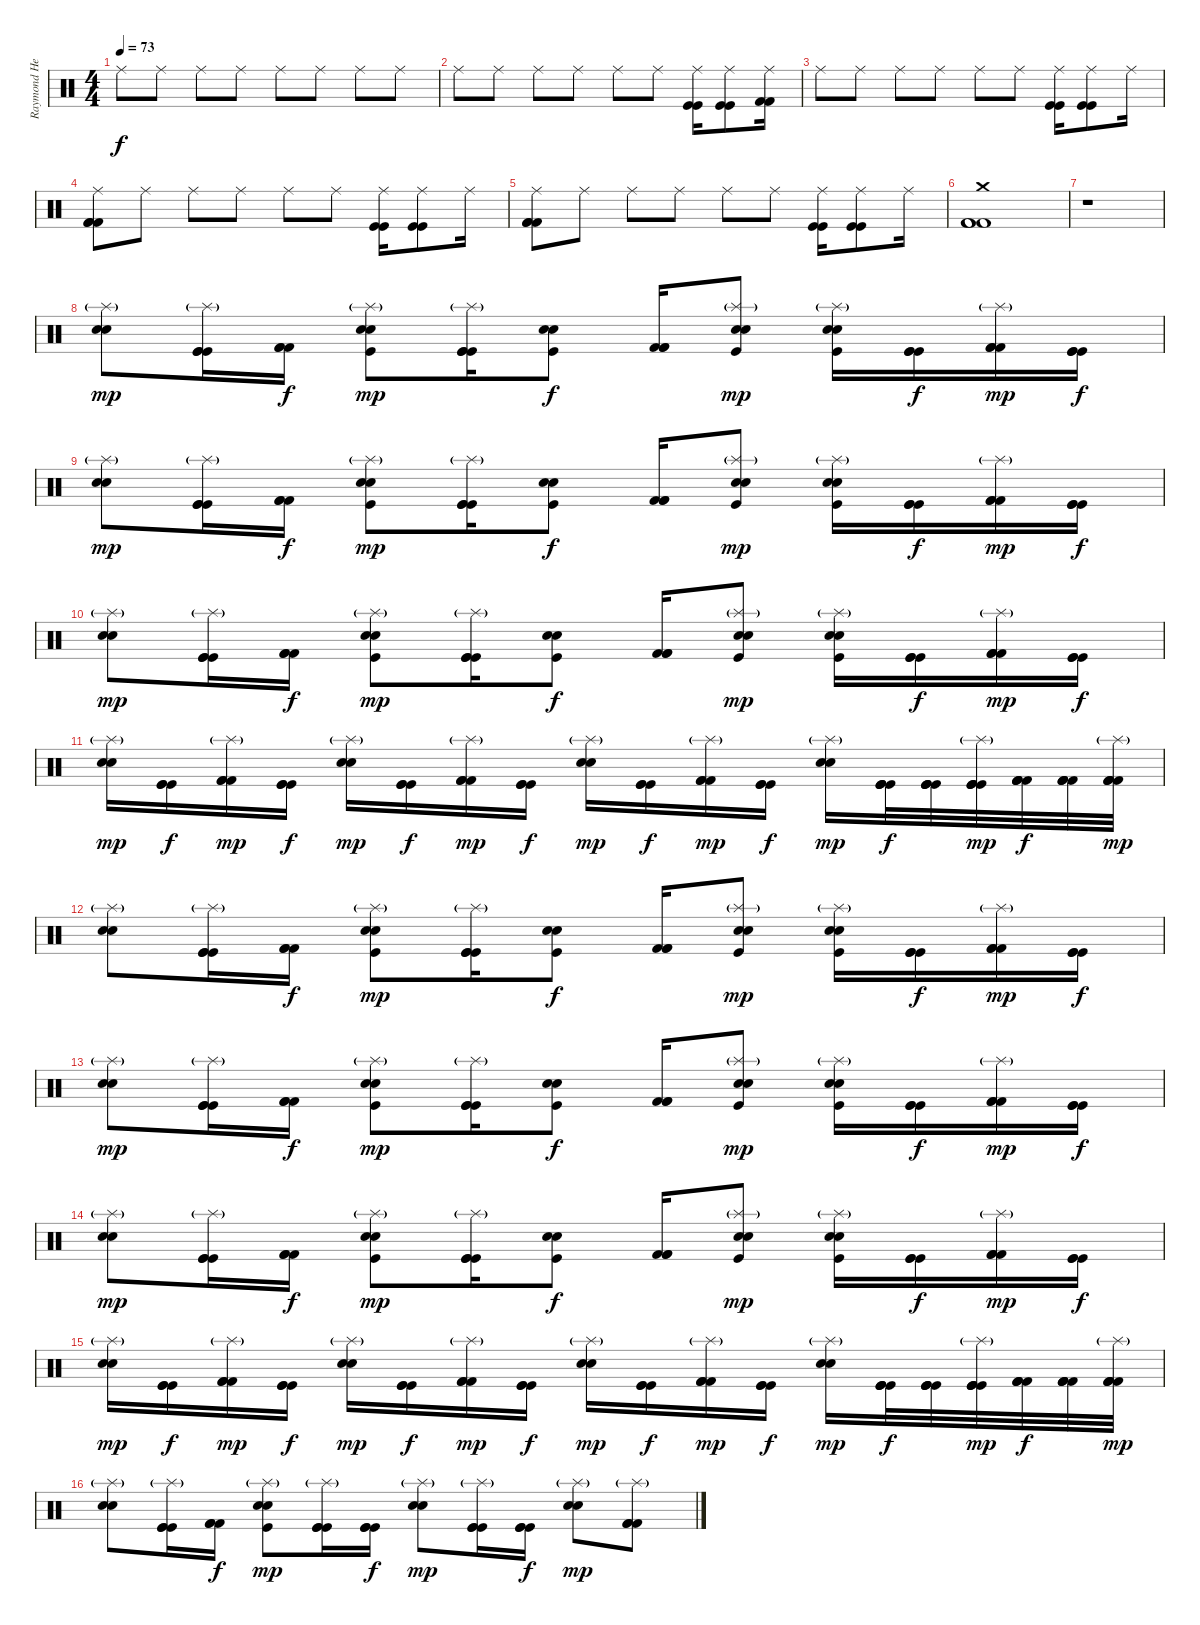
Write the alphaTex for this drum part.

\track ("Raymond Herrera" "Raymond He") {instrument percussion}
\staff {score}
\articulation defaults
\ts (4 4)
\tempo 73
\clef neutral
\ks c "Ride (middle)".8{dy f} "Ride (middle)".8 "Ride (middle)".8 "Ride (middle)".8 "Ride (middle)".8 "Ride (middle)".8 "Ride (middle)".8 "Ride (middle)".8
|
"Ride (middle)".8 "Ride (middle)".8 "Ride (middle)".8 "Ride (middle)".8 "Ride (middle)".8 "Ride (middle)".8 ("Ride (middle)" "Kick (hit)" "Kick (hit)").16 ("Ride (middle)" "Kick (hit)" "Kick (hit)").8 ("Ride (middle)" "Kick (hit) 2" "Kick (hit) 2").16 |
"Ride (middle)".8 "Ride (middle)".8 "Ride (middle)".8 "Ride (middle)".8 "Ride (middle)".8 "Ride (middle)".8 ("Ride (middle)" "Kick (hit)" "Kick (hit)").16 ("Ride (middle)" "Kick (hit)" "Kick (hit)").8 "Ride (middle)".16 |
("Ride (middle)" "Kick (hit) 2" "Kick (hit) 2" "Kick (hit) 2").8 "Ride (middle)".8 "Ride (middle)".8 "Ride (middle)".8 "Ride (middle)".8 "Ride (middle)".8 ("Ride (middle)" "Kick (hit)" "Kick (hit)").16 ("Ride (middle)" "Kick (hit)" "Kick (hit)").8 "Ride (middle)".16 |
("Ride (middle)" "Kick (hit) 2" "Kick (hit) 2" "Kick (hit) 2").8 "Ride (middle)".8 "Ride (middle)".8 "Ride (middle)".8 "Ride (middle)".8 "Ride (middle)".8 ("Ride (middle)" "Kick (hit)" "Kick (hit)").16 ("Ride (middle)" "Kick (hit)" "Kick (hit)").8 "Ride (middle)".16 |
("Crash medium (hit)" "Kick (hit) 2" "Kick (hit) 2" "Kick (hit) 2").1 |
r.1 |
("Splash (hit)"{g} "Electric Snare (hit)" "Electric Snare (hit)").8{dy mp} ("Splash (hit)"{g} "Kick (hit)" "Kick (hit)" "Kick (hit)").16 ("Kick (hit) 2" "Kick (hit) 2" "Kick (hit) 2").16{dy f} ("Splash (hit)"{g} "Electric Snare (hit)" "Electric Snare (hit)" "Kick (hit)").8{dy mp} ("Splash (hit)"{g} "Kick (hit)" "Kick (hit)" "Kick (hit)").16 ("Electric Snare (hit)" "Electric Snare (hit)" "Kick (hit)").8{dy f} ("Kick (hit) 2" "Kick (hit) 2" "Kick (hit) 2").16 ("Splash (hit)"{g} "Electric Snare (hit)" "Electric Snare (hit)" "Kick (hit)").8{dy mp} ("Splash (hit)"{g} "Electric Snare (hit)" "Electric Snare (hit)" "Kick (hit)").16 ("Kick (hit)" "Kick (hit)" "Kick (hit)").16{dy f} ("Splash (hit)"{g} "Kick (hit) 2" "Kick (hit) 2" "Kick (hit) 2").16{dy mp} ("Kick (hit)" "Kick (hit)" "Kick (hit)").16{dy f} |
("Splash (hit)"{g} "Electric Snare (hit)" "Electric Snare (hit)").8{dy mp} ("Splash (hit)"{g} "Kick (hit)" "Kick (hit)" "Kick (hit)").16 ("Kick (hit) 2" "Kick (hit) 2" "Kick (hit) 2").16{dy f} ("Splash (hit)"{g} "Electric Snare (hit)" "Electric Snare (hit)" "Kick (hit)").8{dy mp} ("Splash (hit)"{g} "Kick (hit)" "Kick (hit)" "Kick (hit)").16 ("Electric Snare (hit)" "Electric Snare (hit)" "Kick (hit)").8{dy f} ("Kick (hit) 2" "Kick (hit) 2" "Kick (hit) 2").16 ("Splash (hit)"{g} "Electric Snare (hit)" "Electric Snare (hit)" "Kick (hit)").8{dy mp} ("Splash (hit)"{g} "Electric Snare (hit)" "Electric Snare (hit)" "Kick (hit)").16 ("Kick (hit)" "Kick (hit)" "Kick (hit)").16{dy f} ("Splash (hit)"{g} "Kick (hit) 2" "Kick (hit) 2" "Kick (hit) 2").16{dy mp} ("Kick (hit)" "Kick (hit)" "Kick (hit)").16{dy f} |
("Splash (hit)"{g} "Electric Snare (hit)" "Electric Snare (hit)").8{dy mp} ("Splash (hit)"{g} "Kick (hit)" "Kick (hit)" "Kick (hit)").16 ("Kick (hit) 2" "Kick (hit) 2" "Kick (hit) 2").16{dy f} ("Splash (hit)"{g} "Electric Snare (hit)" "Electric Snare (hit)" "Kick (hit)").8{dy mp} ("Splash (hit)"{g} "Kick (hit)" "Kick (hit)" "Kick (hit)").16 ("Electric Snare (hit)" "Electric Snare (hit)" "Kick (hit)").8{dy f} ("Kick (hit) 2" "Kick (hit) 2" "Kick (hit) 2").16 ("Splash (hit)"{g} "Electric Snare (hit)" "Electric Snare (hit)" "Kick (hit)").8{dy mp} ("Splash (hit)"{g} "Electric Snare (hit)" "Electric Snare (hit)" "Kick (hit)").16 ("Kick (hit)" "Kick (hit)" "Kick (hit)").16{dy f} ("Splash (hit)"{g} "Kick (hit) 2" "Kick (hit) 2" "Kick (hit) 2").16{dy mp} ("Kick (hit)" "Kick (hit)" "Kick (hit)").16{dy f} |
("Splash (hit)"{g} "Electric Snare (hit)" "Electric Snare (hit)").16{dy mp} ("Kick (hit)" "Kick (hit)" "Kick (hit)").16{dy f} ("Splash (hit)"{g} "Kick (hit) 2" "Kick (hit) 2" "Kick (hit) 2").16{dy mp} ("Kick (hit)" "Kick (hit)" "Kick (hit)").16{dy f} ("Splash (hit)"{g} "Electric Snare (hit)" "Electric Snare (hit)").16{dy mp} ("Kick (hit)" "Kick (hit)" "Kick (hit)").16{dy f} ("Splash (hit)"{g} "Kick (hit) 2" "Kick (hit) 2" "Kick (hit) 2").16{dy mp} ("Kick (hit)" "Kick (hit)" "Kick (hit)").16{dy f} ("Splash (hit)"{g} "Electric Snare (hit)" "Electric Snare (hit)").16{dy mp} ("Kick (hit)" "Kick (hit)" "Kick (hit)").16{dy f} ("Splash (hit)"{g} "Kick (hit) 2" "Kick (hit) 2" "Kick (hit) 2").16{dy mp} ("Kick (hit)" "Kick (hit)" "Kick (hit)").16{dy f} ("Splash (hit)"{g} "Electric Snare (hit)" "Electric Snare (hit)").16{dy mp} ("Kick (hit)" "Kick (hit)" "Kick (hit)" "Kick (hit)").32{dy f} ("Kick (hit)" "Kick (hit)" "Kick (hit)" "Kick (hit)").32 ("Splash (hit)"{g} "Kick (hit)" "Kick (hit)" "Kick (hit)" "Kick (hit)").32{dy mp} ("Kick (hit) 2" "Kick (hit) 2" "Kick (hit) 2" "Kick (hit) 2").32{dy f} ("Kick (hit) 2" "Kick (hit) 2" "Kick (hit) 2" "Kick (hit) 2").32 ("Splash (hit)"{g} "Kick (hit) 2" "Kick (hit) 2" "Kick (hit) 2" "Kick (hit) 2").32{dy mp} |
("Splash (hit)"{g} "Electric Snare (hit)" "Electric Snare (hit)").8 ("Splash (hit)"{g} "Kick (hit)" "Kick (hit)" "Kick (hit)").16 ("Kick (hit) 2" "Kick (hit) 2" "Kick (hit) 2").16{dy f} ("Splash (hit)"{g} "Electric Snare (hit)" "Electric Snare (hit)" "Kick (hit)").8{dy mp} ("Splash (hit)"{g} "Kick (hit)" "Kick (hit)" "Kick (hit)").16 ("Electric Snare (hit)" "Electric Snare (hit)" "Kick (hit)").8{dy f} ("Kick (hit) 2" "Kick (hit) 2" "Kick (hit) 2").16 ("Splash (hit)"{g} "Electric Snare (hit)" "Electric Snare (hit)" "Kick (hit)").8{dy mp} ("Splash (hit)"{g} "Electric Snare (hit)" "Electric Snare (hit)" "Kick (hit)").16 ("Kick (hit)" "Kick (hit)" "Kick (hit)").16{dy f} ("Splash (hit)"{g} "Kick (hit) 2" "Kick (hit) 2" "Kick (hit) 2").16{dy mp} ("Kick (hit)" "Kick (hit)" "Kick (hit)").16{dy f} |
("Splash (hit)"{g} "Electric Snare (hit)" "Electric Snare (hit)").8{dy mp} ("Splash (hit)"{g} "Kick (hit)" "Kick (hit)" "Kick (hit)").16 ("Kick (hit) 2" "Kick (hit) 2" "Kick (hit) 2").16{dy f} ("Splash (hit)"{g} "Electric Snare (hit)" "Electric Snare (hit)" "Kick (hit)").8{dy mp} ("Splash (hit)"{g} "Kick (hit)" "Kick (hit)" "Kick (hit)").16 ("Electric Snare (hit)" "Electric Snare (hit)" "Kick (hit)").8{dy f} ("Kick (hit) 2" "Kick (hit) 2" "Kick (hit) 2").16 ("Splash (hit)"{g} "Electric Snare (hit)" "Electric Snare (hit)" "Kick (hit)").8{dy mp} ("Splash (hit)"{g} "Electric Snare (hit)" "Electric Snare (hit)" "Kick (hit)").16 ("Kick (hit)" "Kick (hit)" "Kick (hit)").16{dy f} ("Splash (hit)"{g} "Kick (hit) 2" "Kick (hit) 2" "Kick (hit) 2").16{dy mp} ("Kick (hit)" "Kick (hit)" "Kick (hit)").16{dy f} |
("Splash (hit)"{g} "Electric Snare (hit)" "Electric Snare (hit)").8{dy mp} ("Splash (hit)"{g} "Kick (hit)" "Kick (hit)" "Kick (hit)").16 ("Kick (hit) 2" "Kick (hit) 2" "Kick (hit) 2").16{dy f} ("Splash (hit)"{g} "Electric Snare (hit)" "Electric Snare (hit)" "Kick (hit)").8{dy mp} ("Splash (hit)"{g} "Kick (hit)" "Kick (hit)" "Kick (hit)").16 ("Electric Snare (hit)" "Electric Snare (hit)" "Kick (hit)").8{dy f} ("Kick (hit) 2" "Kick (hit) 2" "Kick (hit) 2").16 ("Splash (hit)"{g} "Electric Snare (hit)" "Electric Snare (hit)" "Kick (hit)").8{dy mp} ("Splash (hit)"{g} "Electric Snare (hit)" "Electric Snare (hit)" "Kick (hit)").16 ("Kick (hit)" "Kick (hit)" "Kick (hit)").16{dy f} ("Splash (hit)"{g} "Kick (hit) 2" "Kick (hit) 2" "Kick (hit) 2").16{dy mp} ("Kick (hit)" "Kick (hit)" "Kick (hit)").16{dy f} |
("Splash (hit)"{g} "Electric Snare (hit)" "Electric Snare (hit)").16{dy mp} ("Kick (hit)" "Kick (hit)" "Kick (hit)").16{dy f} ("Splash (hit)"{g} "Kick (hit) 2" "Kick (hit) 2" "Kick (hit) 2").16{dy mp} ("Kick (hit)" "Kick (hit)" "Kick (hit)").16{dy f} ("Splash (hit)"{g} "Electric Snare (hit)" "Electric Snare (hit)").16{dy mp} ("Kick (hit)" "Kick (hit)" "Kick (hit)").16{dy f} ("Splash (hit)"{g} "Kick (hit) 2" "Kick (hit) 2" "Kick (hit) 2").16{dy mp} ("Kick (hit)" "Kick (hit)" "Kick (hit)").16{dy f} ("Splash (hit)"{g} "Electric Snare (hit)" "Electric Snare (hit)").16{dy mp} ("Kick (hit)" "Kick (hit)" "Kick (hit)").16{dy f} ("Splash (hit)"{g} "Kick (hit) 2" "Kick (hit) 2" "Kick (hit) 2").16{dy mp} ("Kick (hit)" "Kick (hit)" "Kick (hit)").16{dy f} ("Splash (hit)"{g} "Electric Snare (hit)" "Electric Snare (hit)").16{dy mp} ("Kick (hit)" "Kick (hit)" "Kick (hit)" "Kick (hit)").32{dy f} ("Kick (hit)" "Kick (hit)" "Kick (hit)" "Kick (hit)").32 ("Splash (hit)"{g} "Kick (hit)" "Kick (hit)" "Kick (hit)" "Kick (hit)").32{dy mp} ("Kick (hit) 2" "Kick (hit) 2" "Kick (hit) 2" "Kick (hit) 2").32{dy f} ("Kick (hit) 2" "Kick (hit) 2" "Kick (hit) 2" "Kick (hit) 2").32 ("Splash (hit)"{g} "Kick (hit) 2" "Kick (hit) 2" "Kick (hit) 2" "Kick (hit) 2").32{dy mp} |
("Splash (hit)"{g} "Electric Snare (hit)" "Electric Snare (hit)").8 ("Splash (hit)"{g} "Kick (hit)" "Kick (hit)" "Kick (hit)").16 ("Kick (hit) 2" "Kick (hit) 2" "Kick (hit) 2").16{dy f} ("Splash (hit)"{g} "Electric Snare (hit)" "Electric Snare (hit)" "Kick (hit)").8{dy mp} ("Splash (hit)"{g} "Kick (hit)" "Kick (hit)" "Kick (hit)").16 ("Kick (hit)" "Kick (hit)" "Kick (hit)").16{dy f} ("Splash (hit)"{g} "Electric Snare (hit)" "Electric Snare (hit)").8{dy mp} ("Splash (hit)"{g} "Kick (hit)" "Kick (hit)" "Kick (hit)").16 ("Kick (hit)" "Kick (hit)" "Kick (hit)").16{dy f} ("Splash (hit)"{g} "Electric Snare (hit)" "Electric Snare (hit)").8{dy mp} ("Splash (hit)"{g} "Kick (hit) 2" "Kick (hit) 2" "Kick (hit) 2").8
